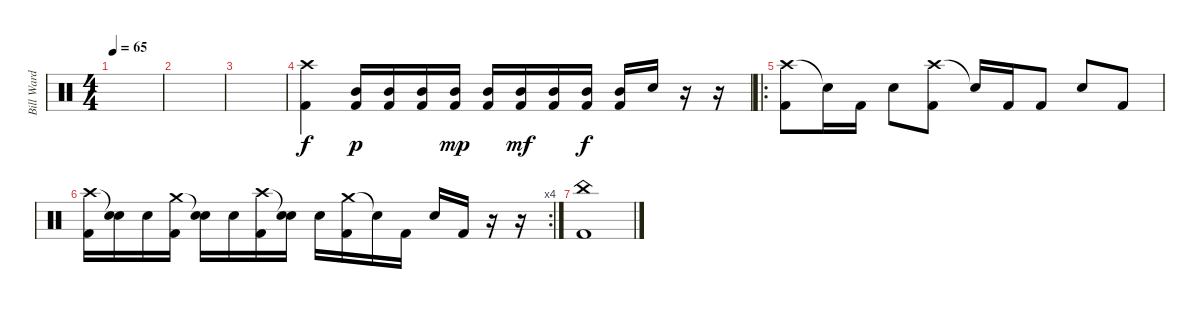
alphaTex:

\track ("Bill Ward" "Bill Ward") {instrument percussion}
\staff {score}
\articulation defaults
\ts (4 4)
\tempo 65
\clef neutral
\ks aminor
|
|
|
("Crash high (hit)" "Kick (hit) 2").4 ("Mid Tom (hit)" "Kick (hit) 2").16{dy p} ("Mid Tom (hit)" "Kick (hit) 2").16 ("Mid Tom (hit)" "Kick (hit) 2").16 ("Mid Tom (hit)" "Kick (hit) 2").16{dy mp} ("Mid Tom (hit)" "Kick (hit) 2").16 ("Mid Tom (hit)" "Kick (hit) 2").16{dy mf} ("Mid Tom (hit)" "Kick (hit) 2").16 ("Mid Tom (hit)" "Kick (hit) 2").16{dy f} ("Mid Tom (hit)" "Kick (hit) 2").16 "Snare (hit) 2".16 r.16 r.16 |
\ro
("Crash high (hit)" "Kick (hit) 2").8 "Snare (hit)"{t}.16 "Kick (hit) 2".16 "Snare (hit) 2".8 ("Crash high (hit)" "Kick (hit) 2").8 "Snare (hit)"{t}.16 "Kick (hit) 2".16 "Kick (hit) 2".8 "Snare (hit) 2".8 "Kick (hit) 2".8 |
\rc 4
("Crash high (hit)" "Kick (hit) 2").16 ("Snare (hit)"{t} "Snare (hit) 2").16 "Snare (hit) 2".16 ("Crash medium (hit)" "Kick (hit) 2").16 ("Snare (hit)"{t} "Snare (hit) 2").16 "Snare (hit) 2".16 ("Crash high (hit)" "Kick (hit) 2").16 ("Snare (hit)"{t} "Snare (hit) 2").16 "Snare (hit) 2".16 ("Crash medium (hit)" "Kick (hit) 2").16 "Snare (hit)"{t}.16 "Kick (hit) 2".16 "Snare (hit) 2".16 "Kick (hit) 2".16 r.16 r.16 |
("China (hit)" "Kick (hit) 2").1
